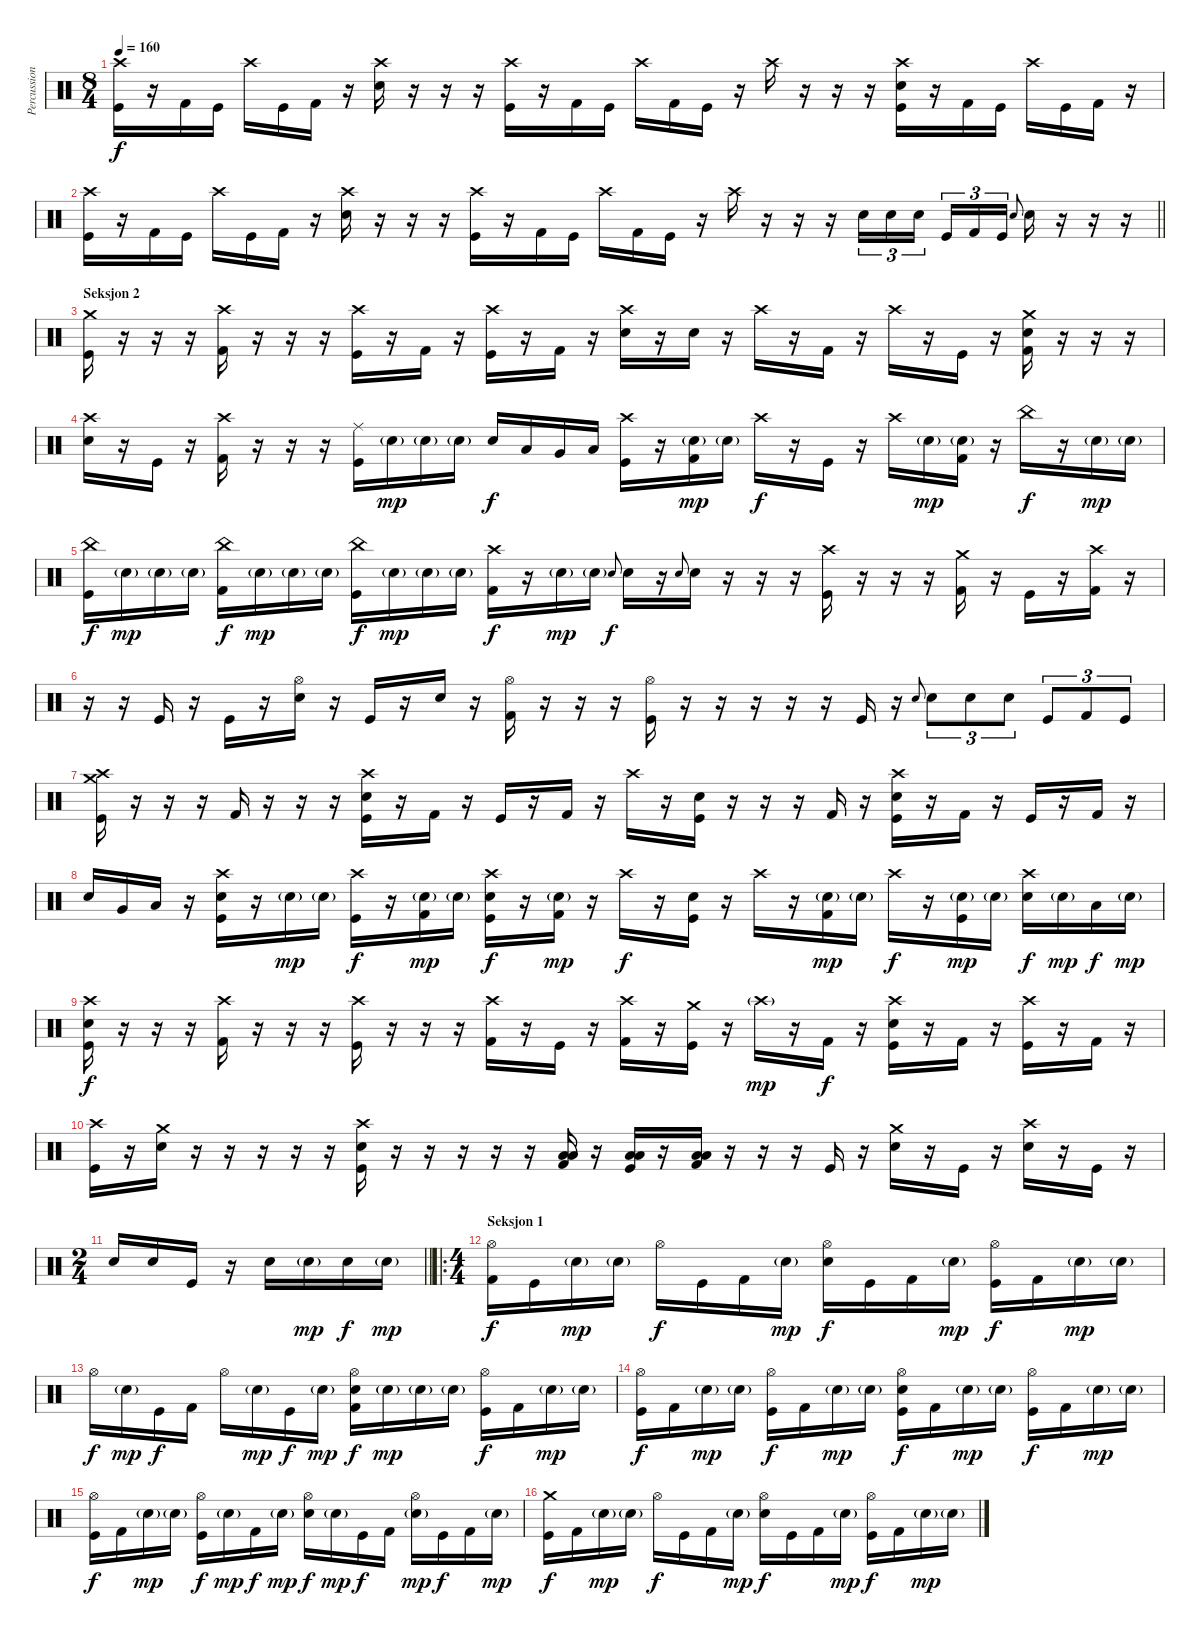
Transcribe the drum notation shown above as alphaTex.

\track ("Percussion" "Percussion") {instrument percussion}
\staff {score}
\articulation defaults
\ts (8 4)
\tempo 160
\clef neutral
\ks c
("Crash high (hit)" "Kick (hit)").16{dy f} r.16 "Kick (hit) 2".16 "Kick (hit)".16 "Crash high (hit)".16 "Kick (hit)".16 "Kick (hit) 2".16 r.16 ("Crash high (hit)" "Snare (hit) 2").16 r.16 r.16 r.16 ("Crash high (hit)" "Kick (hit)").16 r.16 "Kick (hit) 2".16 "Kick (hit)".16 "Crash high (hit)".16 "Kick (hit) 2".16 "Kick (hit)".16 r.16 "Crash high (hit)".16 r.16 r.16 r.16 ("Crash high (hit)" "Snare (hit) 2" "Kick (hit)").16 r.16 "Kick (hit) 2".16 "Kick (hit)".16 "Crash high (hit)".16 "Kick (hit)".16 "Kick (hit) 2".16 r.16 |
\barLineRight lightlight
("Crash high (hit)" "Kick (hit)").16 r.16 "Kick (hit) 2".16 "Kick (hit)".16 "Crash high (hit)".16 "Kick (hit)".16 "Kick (hit) 2".16 r.16 ("Crash high (hit)" "Snare (hit) 2").16 r.16 r.16 r.16 ("Crash high (hit)" "Kick (hit)").16 r.16 "Kick (hit) 2".16 "Kick (hit)".16 "Crash high (hit)".16 "Kick (hit) 2".16 "Kick (hit)".16 r.16 "Crash high (hit)".16 r.16 r.16 r.16 "Snare (hit) 2".16{tu (3 2)} "Snare (hit) 2".16{tu (3 2)} "Snare (hit) 2".16{tu (3 2) beam splitsecondary} "Kick (hit)".16{tu (3 2)} "Kick (hit) 2".16{tu (3 2)} "Kick (hit)".16{tu (3 2)} "Snare (hit) 2".8{gr onbeat} "Snare (hit) 2".16 r.16 r.16 r.16 |
\section ("" "Seksjon 2")
("Crash medium (hit)" "Kick (hit)").16 r.16 r.16 r.16 ("Crash high (hit)" "Kick (hit) 2").16 r.16 r.16 r.16 ("Crash high (hit)" "Kick (hit)").16 r.16 "Kick (hit) 2".16 r.16 ("Crash high (hit)" "Kick (hit)").16 r.16 "Kick (hit) 2".16 r.16 ("Crash high (hit)" "Snare (hit) 2").16 r.16 "Snare (hit) 2".16 r.16 "Crash high (hit)".16 r.16 "Kick (hit) 2".16 r.16 "Crash high (hit)".16 r.16 "Kick (hit)".16 r.16 ("Crash medium (hit)" "Snare (hit) 2" "Kick (hit) 2").16 r.16 r.16 r.16 |
("Crash high (hit)" "Snare (hit) 2").16 r.16 "Kick (hit)".16 r.16 ("Crash high (hit)" "Kick (hit) 2").16 r.16 r.16 r.16 ("Ride (middle)" "Kick (hit)").16 "Snare (hit) 2"{g}.16{dy mp} "Snare (hit) 2"{g}.16 "Snare (hit) 2"{g}.16 "Snare (hit) 2".16{dy f} "Low Tom (hit)".16 "Very Low Tom (hit)".16 "Low Floor Tom (hit)".16 ("Crash high (hit)" "Kick (hit)").16 r.16 ("Snare (hit) 2"{g} "Kick (hit) 2").16{dy mp} "Snare (hit) 2"{g}.16 "Crash high (hit)".16{dy f} r.16 "Kick (hit)".16 r.16 "Crash high (hit)".16 "Snare (hit) 2"{g}.16{dy mp} ("Snare (hit) 2"{g} "Kick (hit) 2").16 r.16 "China (hit)".16{dy f} r.16 "Snare (hit) 2"{g}.16{dy mp} "Snare (hit) 2"{g}.16 |
("China (hit)" "Kick (hit)").16{dy f} "Snare (hit) 2"{g}.16{dy mp} "Snare (hit) 2"{g}.16 "Snare (hit) 2"{g}.16 ("China (hit)" "Kick (hit) 2").16{dy f} "Snare (hit) 2"{g}.16{dy mp} "Snare (hit) 2"{g}.16 "Snare (hit) 2"{g}.16 ("China (hit)" "Kick (hit)").16{dy f} "Snare (hit) 2"{g}.16{dy mp} "Snare (hit) 2"{g}.16 "Snare (hit) 2"{g}.16 ("Crash high (hit)" "Kick (hit) 2").16{dy f} r.16 "Snare (hit) 2"{g}.16{dy mp} "Snare (hit) 2"{g}.16 "Snare (hit) 2".8{gr onbeat dy f} "Snare (hit) 2".16 r.16 "Electric Snare (hit)".8{gr onbeat} "Snare (hit) 2".16 r.16 r.16 r.16 ("Crash high (hit)" "Kick (hit)").16 r.16 r.16 r.16 ("Crash medium (hit)" "Kick (hit) 2").16 r.16 "Kick (hit)".16 r.16 ("Crash high (hit)" "Kick (hit) 2").16 r.16 |
r.16 r.16 "Kick (hit)".16 r.16 "Kick (hit)".16 r.16 ("Hi-Hat (open)" "Snare (hit) 2").16 r.16 "Kick (hit)".16 r.16 "Snare (hit) 2".16 r.16 ("Hi-Hat (open)" "Kick (hit) 2").16 r.16 r.16 r.16 ("Hi-Hat (open)" "Kick (hit)").16 r.16 r.16 r.16 r.16 r.16 "Kick (hit)".16 r.16 "Snare (hit) 2".8{gr onbeat} "Snare (hit) 2".8{tu (3 2)} "Snare (hit) 2".8{tu (3 2)} "Snare (hit) 2".8{tu (3 2)} "Kick (hit)".8{tu (3 2)} "Kick (hit) 2".8{tu (3 2)} "Kick (hit)".8{tu (3 2)} |
("Crash medium (hit)" "Crash high (hit)" "Kick (hit)").16 r.16 r.16 r.16 "Kick (hit) 2".16 r.16 r.16 r.16 ("Crash high (hit)" "Snare (hit) 2" "Kick (hit)").16 r.16 "Kick (hit) 2".16 r.16 "Kick (hit)".16 r.16 "Kick (hit) 2".16 r.16 "Crash high (hit)".16 r.16 ("Snare (hit) 2" "Kick (hit)").16 r.16 r.16 r.16 "Kick (hit) 2".16 r.16 ("Crash high (hit)" "Snare (hit) 2" "Kick (hit)").16 r.16 "Kick (hit) 2".16 r.16 "Kick (hit)".16 r.16 "Kick (hit) 2".16 r.16 |
"Snare (hit) 2".16 "Very Low Tom (hit)".16 "Low Floor Tom (hit)".16 r.16 ("Crash high (hit)" "Snare (hit) 2" "Kick (hit)").16 r.16 "Snare (hit) 2"{g}.16{dy mp} "Snare (hit) 2"{g}.16 ("Crash high (hit)" "Kick (hit)").16{dy f} r.16 ("Snare (hit) 2"{g} "Kick (hit) 2").16{dy mp} "Snare (hit) 2"{g}.16 ("Crash high (hit)" "Snare (hit) 2" "Kick (hit)").16{dy f} r.16 ("Snare (hit) 2"{g} "Kick (hit) 2").16{dy mp} r.16 "Crash high (hit)".16{dy f} r.16 ("Snare (hit) 2" "Kick (hit)").16 r.16 "Crash high (hit)".16 r.16 ("Snare (hit) 2"{g} "Kick (hit) 2").16{dy mp} "Snare (hit) 2"{g}.16 "Crash high (hit)".16{dy f} r.16 ("Snare (hit) 2"{g} "Kick (hit)").16{dy mp} "Snare (hit) 2"{g}.16 ("Crash high (hit)" "Snare (hit) 2").16{dy f} "Snare (hit) 2"{g}.16{dy mp} "Low Tom (hit)".16{dy f} "Snare (hit) 2"{g}.16{dy mp} |
("Crash high (hit)" "Snare (hit) 2" "Kick (hit)").16{dy f} r.16 r.16 r.16 ("Crash high (hit)" "Kick (hit) 2").16 r.16 r.16 r.16 ("Crash high (hit)" "Kick (hit)").16 r.16 r.16 r.16 ("Crash high (hit)" "Kick (hit) 2").16 r.16 "Kick (hit)".16 r.16 ("Crash high (hit)" "Kick (hit) 2").16 r.16 ("Crash medium (hit)" "Kick (hit)").16 r.16 "Crash high (hit)"{g}.16{dy mp} r.16 "Kick (hit) 2".16{dy f} r.16 ("Crash high (hit)" "Snare (hit) 2" "Kick (hit)").16 r.16 "Kick (hit) 2".16 r.16 ("Crash high (hit)" "Kick (hit)").16 r.16 "Kick (hit) 2".16 r.16 |
("Crash high (hit)" "Kick (hit)").16 r.16 ("Crash medium (hit)" "Snare (hit) 2").16 r.16 r.16 r.16 r.16 r.16 ("Crash high (hit)" "Snare (hit) 2" "Kick (hit)").16 r.16 r.16 r.16 r.16 r.16 ("Low Tom (hit)" "Low Floor Tom (hit)" "Kick (hit) 2").16 r.16 ("Low Tom (hit)" "Low Floor Tom (hit)" "Kick (hit)").16 r.16 ("Low Tom (hit)" "Low Floor Tom (hit)" "Kick (hit) 2").16 r.16 r.16 r.16 "Kick (hit)".16 r.16 ("Crash medium (hit)" "Snare (hit) 2").16 r.16 "Kick (hit)".16 r.16 ("Crash high (hit)" "Snare (hit) 2").16 r.16 "Kick (hit)".16 r.16 |
\ts (2 4)
\barLineRight lightlight "Snare (hit) 2".16 "Snare (hit) 2".16 "Kick (hit)".16
r.16 "Snare (hit) 2".16 "Snare (hit) 2"{g}.16{dy mp} "Snare (hit) 2".16{dy f} "Snare (hit) 2"{g}.16{dy mp} |
\ro
\ts (4 4)
\section ("" "Seksjon 1")
("Hi-Hat (open)" "Kick (hit) 2").16{dy f} "Kick (hit)".16 "Snare (hit) 2"{g}.16{dy mp} "Snare (hit) 2"{g}.16 "Hi-Hat (open)".16{dy f} "Kick (hit)".16 "Kick (hit) 2".16 "Snare (hit) 2"{g}.16{dy mp} ("Hi-Hat (open)" "Snare (hit) 2").16{dy f} "Kick (hit)".16 "Kick (hit) 2".16 "Snare (hit) 2"{g}.16{dy mp} ("Hi-Hat (open)" "Kick (hit)").16{dy f} "Kick (hit) 2".16 "Snare (hit) 2"{g}.16{dy mp} "Snare (hit) 2"{g}.16 |
"Hi-Hat (open)".16{dy f} "Snare (hit) 2"{g}.16{dy mp} "Kick (hit)".16{dy f} "Kick (hit) 2".16 "Hi-Hat (open)".16 "Snare (hit) 2"{g}.16{dy mp} "Kick (hit)".16{dy f} "Snare (hit) 2"{g}.16{dy mp} ("Hi-Hat (open)" "Snare (hit) 2" "Kick (hit) 2").16{dy f} "Snare (hit) 2"{g}.16{dy mp} "Snare (hit) 2"{g}.16 "Snare (hit) 2"{g}.16 ("Hi-Hat (open)" "Kick (hit)").16{dy f} "Kick (hit) 2".16 "Snare (hit) 2"{g}.16{dy mp} "Snare (hit) 2"{g}.16 |
("Hi-Hat (open)" "Kick (hit)").16{dy f} "Kick (hit) 2".16 "Snare (hit) 2"{g}.16{dy mp} "Snare (hit) 2"{g}.16 ("Hi-Hat (open)" "Kick (hit)").16{dy f} "Kick (hit) 2".16 "Snare (hit) 2"{g}.16{dy mp} "Snare (hit) 2"{g}.16 ("Hi-Hat (open)" "Snare (hit) 2" "Kick (hit)").16{dy f} "Kick (hit) 2".16 "Snare (hit) 2"{g}.16{dy mp} "Snare (hit) 2"{g}.16 ("Hi-Hat (open)" "Kick (hit)").16{dy f} "Kick (hit) 2".16 "Snare (hit) 2"{g}.16{dy mp} "Snare (hit) 2"{g}.16 |
("Hi-Hat (open)" "Kick (hit)").16{dy f} "Kick (hit) 2".16 "Snare (hit) 2"{g}.16{dy mp} "Snare (hit) 2"{g}.16 ("Hi-Hat (open)" "Kick (hit)").16{dy f} "Snare (hit) 2"{g}.16{dy mp} "Kick (hit) 2".16{dy f} "Snare (hit) 2"{g}.16{dy mp} ("Hi-Hat (open)" "Snare (hit) 2").16{dy f} "Snare (hit) 2"{g}.16{dy mp} "Kick (hit)".16{dy f} "Kick (hit) 2".16 ("Hi-Hat (open)" "Snare (hit) 2"{g}).16{dy mp} "Kick (hit)".16{dy f} "Kick (hit) 2".16 "Snare (hit) 2"{g}.16{dy mp} |
("Crash medium (hit)" "Kick (hit)").16{dy f} "Kick (hit) 2".16 "Snare (hit) 2"{g}.16{dy mp} "Snare (hit) 2"{g}.16 "Hi-Hat (open)".16{dy f} "Kick (hit)".16 "Kick (hit) 2".16 "Snare (hit) 2"{g}.16{dy mp} ("Hi-Hat (open)" "Snare (hit) 2").16{dy f} "Kick (hit)".16 "Kick (hit) 2".16 "Snare (hit) 2"{g}.16{dy mp} ("Hi-Hat (open)" "Kick (hit)").16{dy f} "Kick (hit) 2".16 "Snare (hit) 2"{g}.16{dy mp} "Snare (hit) 2"{g}.16
